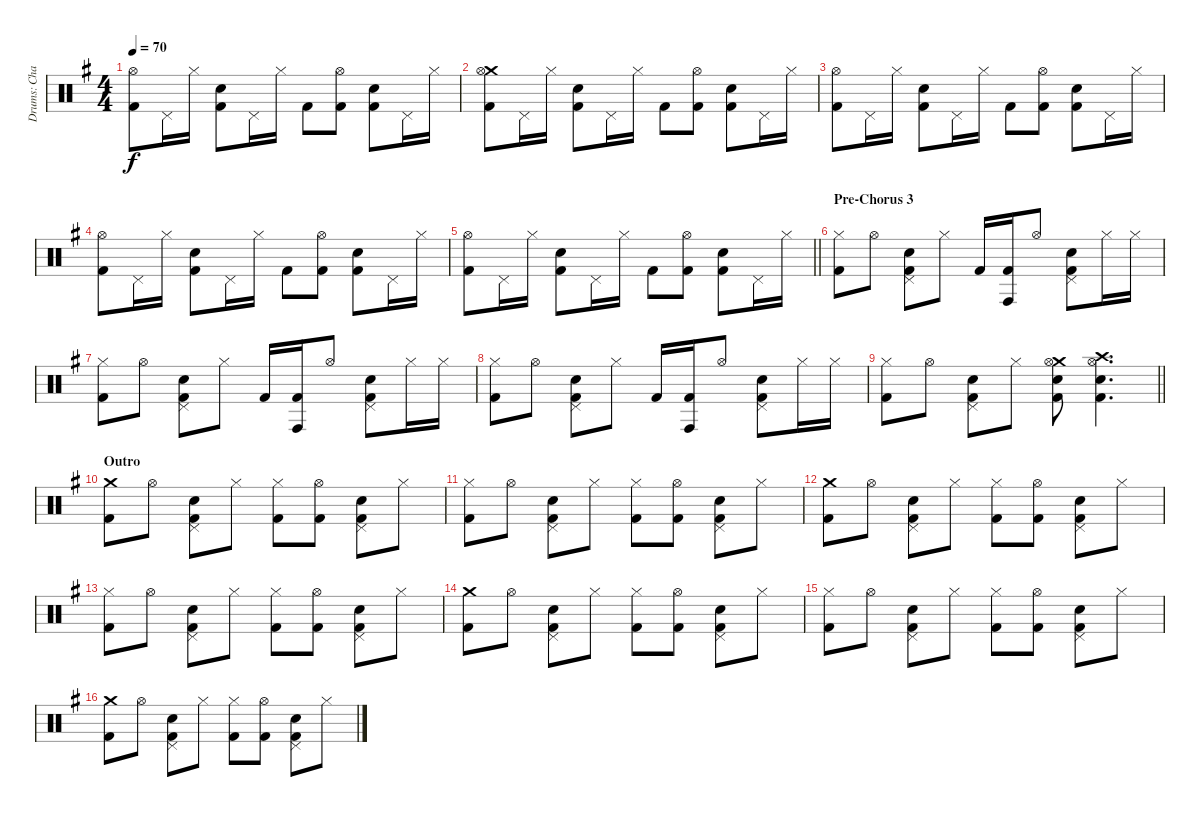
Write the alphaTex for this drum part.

\track ("Drums: Charlie Allen Martin" "Drums: Cha") {instrument percussion}
\staff {score}
\articulation defaults
\ts (4 4)
\tempo 70
\clef neutral
\ks g
("Hi-Hat (open)" "Kick (hit) 2").8{dy f} "Pedal Hi-Hat (hit)".16 "Hi-Hat (closed)".16 ("Snare (hit) 2" "Kick (hit) 2").8 "Pedal Hi-Hat (hit)".16 "Hi-Hat (closed)".16 "Kick (hit) 2".8 ("Hi-Hat (open)" "Kick (hit) 2").8 ("Snare (hit) 2" "Kick (hit) 2").8 "Pedal Hi-Hat (hit)".16 "Hi-Hat (closed)".16 |
("Crash medium (hit)" "Hi-Hat (open)" "Kick (hit) 2").8 "Pedal Hi-Hat (hit)".16 "Hi-Hat (closed)".16 ("Snare (hit) 2" "Kick (hit) 2").8 "Pedal Hi-Hat (hit)".16 "Hi-Hat (closed)".16 "Kick (hit) 2".8 ("Hi-Hat (open)" "Kick (hit) 2").8 ("Snare (hit) 2" "Kick (hit) 2").8 "Pedal Hi-Hat (hit)".16 "Hi-Hat (closed)".16 |
("Hi-Hat (open)" "Kick (hit) 2").8 "Pedal Hi-Hat (hit)".16 "Hi-Hat (closed)".16 ("Snare (hit) 2" "Kick (hit) 2").8 "Pedal Hi-Hat (hit)".16 "Hi-Hat (closed)".16 "Kick (hit) 2".8 ("Hi-Hat (open)" "Kick (hit) 2").8 ("Snare (hit) 2" "Kick (hit) 2").8 "Pedal Hi-Hat (hit)".16 "Hi-Hat (closed)".16 |
("Hi-Hat (open)" "Kick (hit) 2").8 "Pedal Hi-Hat (hit)".16 "Hi-Hat (closed)".16 ("Snare (hit) 2" "Kick (hit) 2").8 "Pedal Hi-Hat (hit)".16 "Hi-Hat (closed)".16 "Kick (hit) 2".8 ("Hi-Hat (open)" "Kick (hit) 2").8 ("Snare (hit) 2" "Kick (hit) 2").8 "Pedal Hi-Hat (hit)".16 "Hi-Hat (closed)".16 |
\barLineRight lightlight
("Hi-Hat (open)" "Kick (hit) 2").8 "Pedal Hi-Hat (hit)".16 "Hi-Hat (closed)".16 ("Snare (hit) 2" "Kick (hit) 2").8 "Pedal Hi-Hat (hit)".16 "Hi-Hat (closed)".16 "Kick (hit) 2".8 ("Hi-Hat (open)" "Kick (hit) 2").8 ("Snare (hit) 2" "Kick (hit) 2").8 "Pedal Hi-Hat (hit)".16 "Hi-Hat (closed)".16 |
\section ("" "Pre-Chorus 3")
("Hi-Hat (closed)" "Kick (hit) 2").8 "Hi-Hat (open)".8 ("Pedal Hi-Hat (hit)" "Snare (hit) 2" "Kick (hit) 2").8 "Hi-Hat (closed)".8 "Kick (hit) 2".16 ("Conga high (hit)" "Kick (hit) 2").16 "Hi-Hat (open)".8 ("Pedal Hi-Hat (hit)" "Snare (hit) 2" "Kick (hit) 2").8 "Hi-Hat (closed)".16 "Hi-Hat (closed)".16 |
("Hi-Hat (closed)" "Kick (hit) 2").8 "Hi-Hat (open)".8 ("Pedal Hi-Hat (hit)" "Snare (hit) 2" "Kick (hit) 2").8 "Hi-Hat (closed)".8 "Kick (hit) 2".16 ("Conga high (hit)" "Kick (hit) 2").16 "Hi-Hat (open)".8 ("Pedal Hi-Hat (hit)" "Snare (hit) 2" "Kick (hit) 2").8 "Hi-Hat (closed)".16 "Hi-Hat (closed)".16 |
("Hi-Hat (closed)" "Kick (hit) 2").8 "Hi-Hat (open)".8 ("Pedal Hi-Hat (hit)" "Snare (hit) 2" "Kick (hit) 2").8 "Hi-Hat (closed)".8 "Kick (hit) 2".16 ("Conga high (hit)" "Kick (hit) 2").16 "Hi-Hat (open)".8 ("Pedal Hi-Hat (hit)" "Snare (hit) 2" "Kick (hit) 2").8 "Hi-Hat (closed)".16 "Hi-Hat (closed)".16 |
\barLineRight lightlight
("Hi-Hat (closed)" "Kick (hit) 2").8 "Hi-Hat (open)".8 ("Pedal Hi-Hat (hit)" "Snare (hit) 2" "Kick (hit) 2").8 "Hi-Hat (closed)".8 ("Crash medium (hit)" "Hi-Hat (open)" "Snare (hit) 2" "Kick (hit) 2").8 ("Crash high (hit)" "Hi-Hat (open)" "Snare (hit) 2" "Kick (hit) 2").4{d} |
\section ("" "Outro")
("Crash medium (hit)" "Kick (hit) 2").8 "Hi-Hat (open)".8 ("Pedal Hi-Hat (hit)" "Snare (hit) 2" "Kick (hit) 2").8 "Hi-Hat (closed)".8 ("Hi-Hat (closed)" "Kick (hit) 2").8 ("Hi-Hat (open)" "Kick (hit) 2").8 ("Pedal Hi-Hat (hit)" "Snare (hit) 2" "Kick (hit) 2").8 "Hi-Hat (closed)".8 |
("Hi-Hat (closed)" "Kick (hit) 2").8 "Hi-Hat (open)".8 ("Pedal Hi-Hat (hit)" "Snare (hit) 2" "Kick (hit) 2").8 "Hi-Hat (closed)".8 ("Hi-Hat (closed)" "Kick (hit) 2").8 ("Hi-Hat (open)" "Kick (hit) 2").8 ("Pedal Hi-Hat (hit)" "Snare (hit) 2" "Kick (hit) 2").8 "Hi-Hat (closed)".8 |
("Crash medium (hit)" "Kick (hit) 2").8 "Hi-Hat (open)".8 ("Pedal Hi-Hat (hit)" "Snare (hit) 2" "Kick (hit) 2").8 "Hi-Hat (closed)".8 ("Hi-Hat (closed)" "Kick (hit) 2").8 ("Hi-Hat (open)" "Kick (hit) 2").8 ("Pedal Hi-Hat (hit)" "Snare (hit) 2" "Kick (hit) 2").8 "Hi-Hat (closed)".8 |
("Hi-Hat (closed)" "Kick (hit) 2").8 "Hi-Hat (open)".8 ("Pedal Hi-Hat (hit)" "Snare (hit) 2" "Kick (hit) 2").8 "Hi-Hat (closed)".8 ("Hi-Hat (closed)" "Kick (hit) 2").8 ("Hi-Hat (open)" "Kick (hit) 2").8 ("Pedal Hi-Hat (hit)" "Snare (hit) 2" "Kick (hit) 2").8 "Hi-Hat (closed)".8 |
("Crash medium (hit)" "Kick (hit) 2").8 "Hi-Hat (open)".8 ("Pedal Hi-Hat (hit)" "Snare (hit) 2" "Kick (hit) 2").8 "Hi-Hat (closed)".8 ("Hi-Hat (closed)" "Kick (hit) 2").8 ("Hi-Hat (open)" "Kick (hit) 2").8 ("Pedal Hi-Hat (hit)" "Snare (hit) 2" "Kick (hit) 2").8 "Hi-Hat (closed)".8 |
("Hi-Hat (closed)" "Kick (hit) 2").8 "Hi-Hat (open)".8 ("Pedal Hi-Hat (hit)" "Snare (hit) 2" "Kick (hit) 2").8 "Hi-Hat (closed)".8 ("Hi-Hat (closed)" "Kick (hit) 2").8 ("Hi-Hat (open)" "Kick (hit) 2").8 ("Pedal Hi-Hat (hit)" "Snare (hit) 2" "Kick (hit) 2").8 "Hi-Hat (closed)".8 |
("Crash medium (hit)" "Kick (hit) 2").8 "Hi-Hat (open)".8 ("Pedal Hi-Hat (hit)" "Snare (hit) 2" "Kick (hit) 2").8 "Hi-Hat (closed)".8 ("Hi-Hat (closed)" "Kick (hit) 2").8 ("Hi-Hat (open)" "Kick (hit) 2").8 ("Pedal Hi-Hat (hit)" "Snare (hit) 2" "Kick (hit) 2").8 "Hi-Hat (closed)".8
